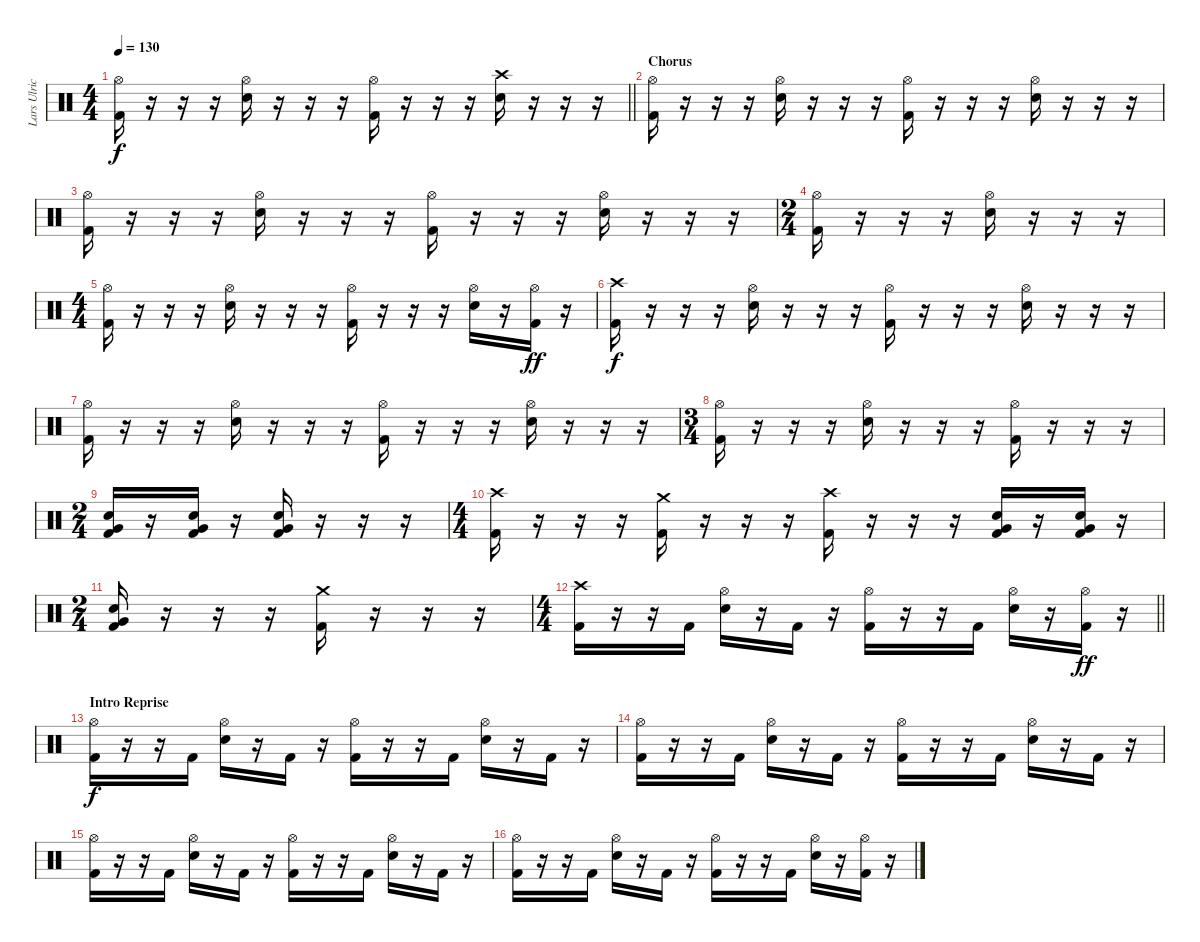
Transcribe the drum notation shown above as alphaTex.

\track ("Lars Ulrich" "Lars Ulric") {instrument percussion}
\staff {score}
\articulation defaults
\ts (4 4)
\tempo 130
\clef neutral
\barLineRight lightlight
\ks c
("Hi-Hat (open)" "Kick (hit) 2").16{dy f} r.16 r.16 r.16 ("Electric Snare (hit)" "Hi-Hat (open)").16 r.16 r.16 r.16 ("Hi-Hat (open)" "Kick (hit) 2").16 r.16 r.16 r.16 ("Crash high (hit)" "Electric Snare (hit)").16 r.16 r.16 r.16 |
\section ("" "Chorus")
("Hi-Hat (open)" "Kick (hit) 2").16 r.16 r.16 r.16 ("Electric Snare (hit)" "Hi-Hat (open)").16 r.16 r.16 r.16 ("Hi-Hat (open)" "Kick (hit) 2").16 r.16 r.16 r.16 ("Electric Snare (hit)" "Hi-Hat (open)").16 r.16 r.16 r.16 |
("Hi-Hat (open)" "Kick (hit) 2").16 r.16 r.16 r.16 ("Electric Snare (hit)" "Hi-Hat (open)").16 r.16 r.16 r.16 ("Hi-Hat (open)" "Kick (hit) 2").16 r.16 r.16 r.16 ("Electric Snare (hit)" "Hi-Hat (open)").16 r.16 r.16 r.16 |
\ts (2 4)
("Hi-Hat (open)" "Kick (hit) 2").16 r.16 r.16 r.16 ("Electric Snare (hit)" "Hi-Hat (open)").16 r.16 r.16 r.16 |
\ts (4 4)
("Hi-Hat (open)" "Kick (hit) 2").16 r.16 r.16 r.16 ("Electric Snare (hit)" "Hi-Hat (open)").16 r.16 r.16 r.16 ("Hi-Hat (open)" "Kick (hit) 2").16 r.16 r.16 r.16 ("Electric Snare (hit)" "Hi-Hat (open)").16 r.16 ("Hi-Hat (open)" "Kick (hit) 2").16{dy ff} r.16 |
("Crash high (hit)" "Kick (hit) 2").16{dy f} r.16 r.16 r.16 ("Electric Snare (hit)" "Hi-Hat (open)").16 r.16 r.16 r.16 ("Hi-Hat (open)" "Kick (hit) 2").16 r.16 r.16 r.16 ("Electric Snare (hit)" "Hi-Hat (open)").16 r.16 r.16 r.16 |
("Hi-Hat (open)" "Kick (hit) 2").16 r.16 r.16 r.16 ("Electric Snare (hit)" "Hi-Hat (open)").16 r.16 r.16 r.16 ("Hi-Hat (open)" "Kick (hit) 2").16 r.16 r.16 r.16 ("Electric Snare (hit)" "Hi-Hat (open)").16 r.16 r.16 r.16 |
\ts (3 4)
("Hi-Hat (open)" "Kick (hit) 2").16 r.16 r.16 r.16 ("Electric Snare (hit)" "Hi-Hat (open)").16 r.16 r.16 r.16 ("Hi-Hat (open)" "Kick (hit) 2").16 r.16 r.16 r.16 |
\ts (2 4)
("Electric Snare (hit)" "Very Low Tom (hit)" "Kick (hit) 2").16 r.16 ("Electric Snare (hit)" "Very Low Tom (hit)" "Kick (hit) 2").16 r.16 ("Electric Snare (hit)" "Very Low Tom (hit)" "Kick (hit) 2").16 r.16 r.16 r.16 |
\ts (4 4)
("Crash high (hit)" "Kick (hit) 2").16 r.16 r.16 r.16 ("Crash medium (hit)" "Kick (hit) 2").16 r.16 r.16 r.16 ("Crash high (hit)" "Kick (hit) 2").16 r.16 r.16 r.16 ("Electric Snare (hit)" "Very Low Tom (hit)" "Kick (hit) 2").16 r.16 ("Electric Snare (hit)" "Very Low Tom (hit)" "Kick (hit) 2").16 r.16 |
\ts (2 4)
("Electric Snare (hit)" "Very Low Tom (hit)" "Kick (hit) 2").16 r.16 r.16 r.16 ("Crash medium (hit)" "Kick (hit) 2").16 r.16 r.16 r.16 |
\ts (4 4)
\barLineRight lightlight
("Crash high (hit)" "Kick (hit) 2").16 r.16 r.16 "Kick (hit) 2".16 ("Electric Snare (hit)" "Hi-Hat (open)").16 r.16 "Kick (hit) 2".16 r.16 ("Hi-Hat (open)" "Kick (hit) 2").16 r.16 r.16 "Kick (hit) 2".16 ("Electric Snare (hit)" "Hi-Hat (open)").16 r.16 ("Hi-Hat (open)" "Kick (hit) 2").16{dy ff} r.16 |
\section ("" "Intro Reprise")
("Hi-Hat (open)" "Kick (hit) 2").16{dy f} r.16 r.16 "Kick (hit) 2".16 ("Electric Snare (hit)" "Hi-Hat (open)").16 r.16 "Kick (hit) 2".16 r.16 ("Hi-Hat (open)" "Kick (hit) 2").16 r.16 r.16 "Kick (hit) 2".16 ("Electric Snare (hit)" "Hi-Hat (open)").16 r.16 "Kick (hit) 2".16 r.16 |
("Hi-Hat (open)" "Kick (hit) 2").16 r.16 r.16 "Kick (hit) 2".16 ("Electric Snare (hit)" "Hi-Hat (open)").16 r.16 "Kick (hit) 2".16 r.16 ("Hi-Hat (open)" "Kick (hit) 2").16 r.16 r.16 "Kick (hit) 2".16 ("Electric Snare (hit)" "Hi-Hat (open)").16 r.16 "Kick (hit) 2".16 r.16 |
("Hi-Hat (open)" "Kick (hit) 2").16 r.16 r.16 "Kick (hit) 2".16 ("Electric Snare (hit)" "Hi-Hat (open)").16 r.16 "Kick (hit) 2".16 r.16 ("Hi-Hat (open)" "Kick (hit) 2").16 r.16 r.16 "Kick (hit) 2".16 ("Electric Snare (hit)" "Hi-Hat (open)").16 r.16 "Kick (hit) 2".16 r.16 |
("Hi-Hat (open)" "Kick (hit) 2").16 r.16 r.16 "Kick (hit) 2".16 ("Electric Snare (hit)" "Hi-Hat (open)").16 r.16 "Kick (hit) 2".16 r.16 ("Hi-Hat (open)" "Kick (hit) 2").16 r.16 r.16 "Kick (hit) 2".16 ("Electric Snare (hit)" "Hi-Hat (open)").16 r.16 ("Hi-Hat (open)" "Kick (hit) 2").16 r.16
